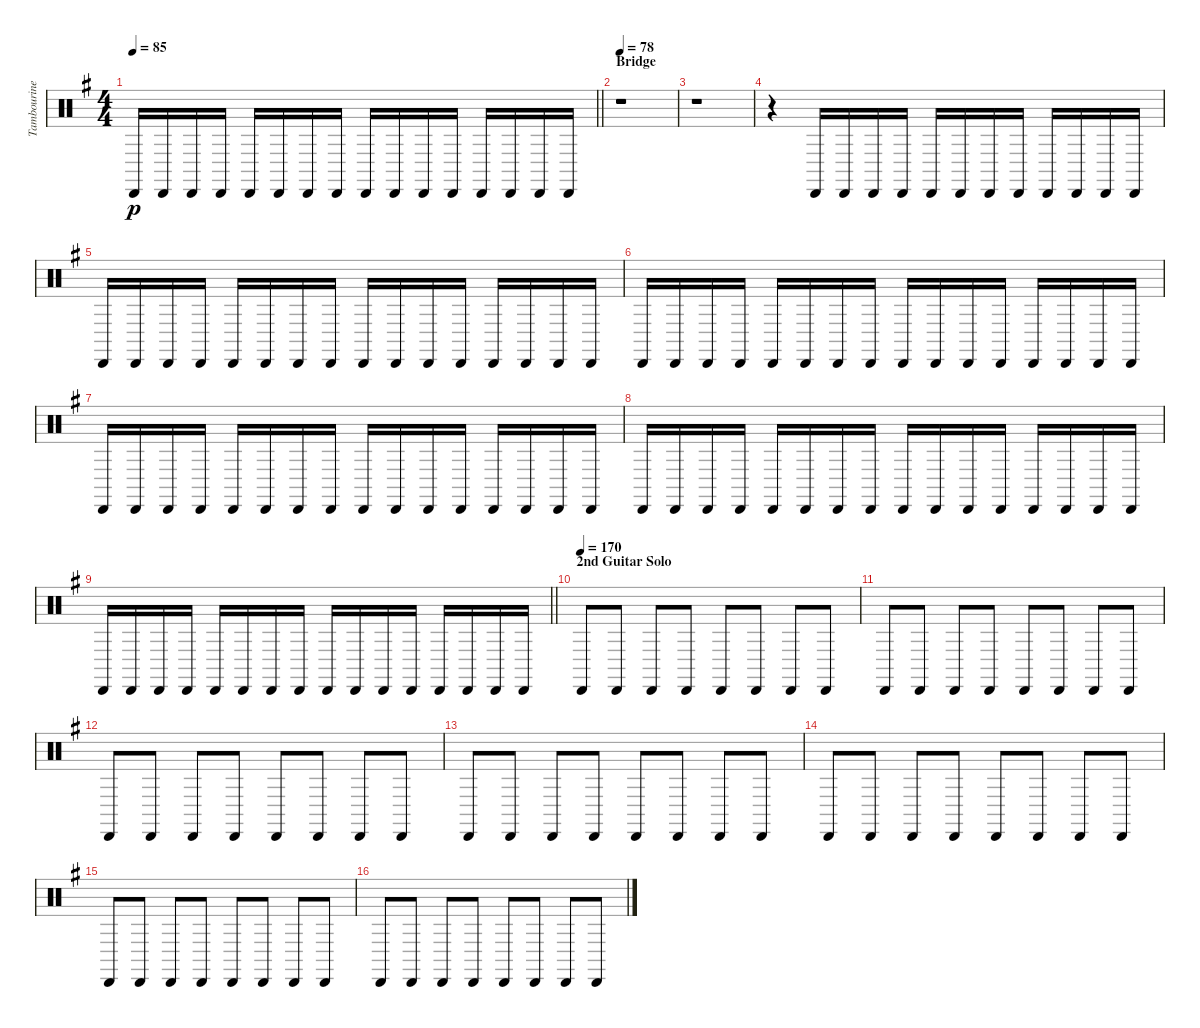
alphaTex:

\track ("Tambourine" "Tambourine") {instrument percussion}
\staff {score}
\articulation defaults
\ts (4 4)
\tempo 85
\clef neutral
\barLineRight lightlight
\ks eminor "Cabasa (hit)".16{dy p} "Cabasa (hit)".16 "Cabasa (hit)".16 "Cabasa (hit)".16 "Cabasa (hit)".16 "Cabasa (hit)".16 "Cabasa (hit)".16 "Cabasa (hit)".16 "Cabasa (hit)".16 "Cabasa (hit)".16 "Cabasa (hit)".16 "Cabasa (hit)".16 "Cabasa (hit)".16 "Cabasa (hit)".16 "Cabasa (hit)".16 "Cabasa (hit)".16
|
\section ("" "Bridge")
\tempo 78
r.1 |
r.1 |
r.4 "Cabasa (hit)".16 "Cabasa (hit)".16 "Cabasa (hit)".16 "Cabasa (hit)".16 "Cabasa (hit)".16 "Cabasa (hit)".16 "Cabasa (hit)".16 "Cabasa (hit)".16 "Cabasa (hit)".16 "Cabasa (hit)".16 "Cabasa (hit)".16 "Cabasa (hit)".16 |
"Cabasa (hit)".16 "Cabasa (hit)".16 "Cabasa (hit)".16 "Cabasa (hit)".16 "Cabasa (hit)".16 "Cabasa (hit)".16 "Cabasa (hit)".16 "Cabasa (hit)".16 "Cabasa (hit)".16 "Cabasa (hit)".16 "Cabasa (hit)".16 "Cabasa (hit)".16 "Cabasa (hit)".16 "Cabasa (hit)".16 "Cabasa (hit)".16 "Cabasa (hit)".16 |
"Cabasa (hit)".16 "Cabasa (hit)".16 "Cabasa (hit)".16 "Cabasa (hit)".16 "Cabasa (hit)".16 "Cabasa (hit)".16 "Cabasa (hit)".16 "Cabasa (hit)".16 "Cabasa (hit)".16 "Cabasa (hit)".16 "Cabasa (hit)".16 "Cabasa (hit)".16 "Cabasa (hit)".16 "Cabasa (hit)".16 "Cabasa (hit)".16 "Cabasa (hit)".16 |
"Cabasa (hit)".16 "Cabasa (hit)".16 "Cabasa (hit)".16 "Cabasa (hit)".16 "Cabasa (hit)".16 "Cabasa (hit)".16 "Cabasa (hit)".16 "Cabasa (hit)".16 "Cabasa (hit)".16 "Cabasa (hit)".16 "Cabasa (hit)".16 "Cabasa (hit)".16 "Cabasa (hit)".16 "Cabasa (hit)".16 "Cabasa (hit)".16 "Cabasa (hit)".16 |
"Cabasa (hit)".16 "Cabasa (hit)".16 "Cabasa (hit)".16 "Cabasa (hit)".16 "Cabasa (hit)".16 "Cabasa (hit)".16 "Cabasa (hit)".16 "Cabasa (hit)".16 "Cabasa (hit)".16 "Cabasa (hit)".16 "Cabasa (hit)".16 "Cabasa (hit)".16 "Cabasa (hit)".16 "Cabasa (hit)".16 "Cabasa (hit)".16 "Cabasa (hit)".16 |
\barLineRight lightlight "Cabasa (hit)".16 "Cabasa (hit)".16 "Cabasa (hit)".16 "Cabasa (hit)".16 "Cabasa (hit)".16 "Cabasa (hit)".16 "Cabasa (hit)".16 "Cabasa (hit)".16 "Cabasa (hit)".16 "Cabasa (hit)".16 "Cabasa (hit)".16 "Cabasa (hit)".16 "Cabasa (hit)".16 "Cabasa (hit)".16 "Cabasa (hit)".16 "Cabasa (hit)".16
|
\section ("" "2nd Guitar Solo")
\tempo (170)
"Cabasa (hit)".8 "Cabasa (hit)".8 "Cabasa (hit)".8 "Cabasa (hit)".8 "Cabasa (hit)".8 "Cabasa (hit)".8 "Cabasa (hit)".8 "Cabasa (hit)".8 |
"Cabasa (hit)".8 "Cabasa (hit)".8 "Cabasa (hit)".8 "Cabasa (hit)".8 "Cabasa (hit)".8 "Cabasa (hit)".8 "Cabasa (hit)".8 "Cabasa (hit)".8 |
"Cabasa (hit)".8 "Cabasa (hit)".8 "Cabasa (hit)".8 "Cabasa (hit)".8 "Cabasa (hit)".8 "Cabasa (hit)".8 "Cabasa (hit)".8 "Cabasa (hit)".8 |
"Cabasa (hit)".8 "Cabasa (hit)".8 "Cabasa (hit)".8 "Cabasa (hit)".8 "Cabasa (hit)".8 "Cabasa (hit)".8 "Cabasa (hit)".8 "Cabasa (hit)".8 |
"Cabasa (hit)".8 "Cabasa (hit)".8 "Cabasa (hit)".8 "Cabasa (hit)".8 "Cabasa (hit)".8 "Cabasa (hit)".8 "Cabasa (hit)".8 "Cabasa (hit)".8 |
"Cabasa (hit)".8 "Cabasa (hit)".8 "Cabasa (hit)".8 "Cabasa (hit)".8 "Cabasa (hit)".8 "Cabasa (hit)".8 "Cabasa (hit)".8 "Cabasa (hit)".8 |
"Cabasa (hit)".8 "Cabasa (hit)".8 "Cabasa (hit)".8 "Cabasa (hit)".8 "Cabasa (hit)".8 "Cabasa (hit)".8 "Cabasa (hit)".8 "Cabasa (hit)".8
